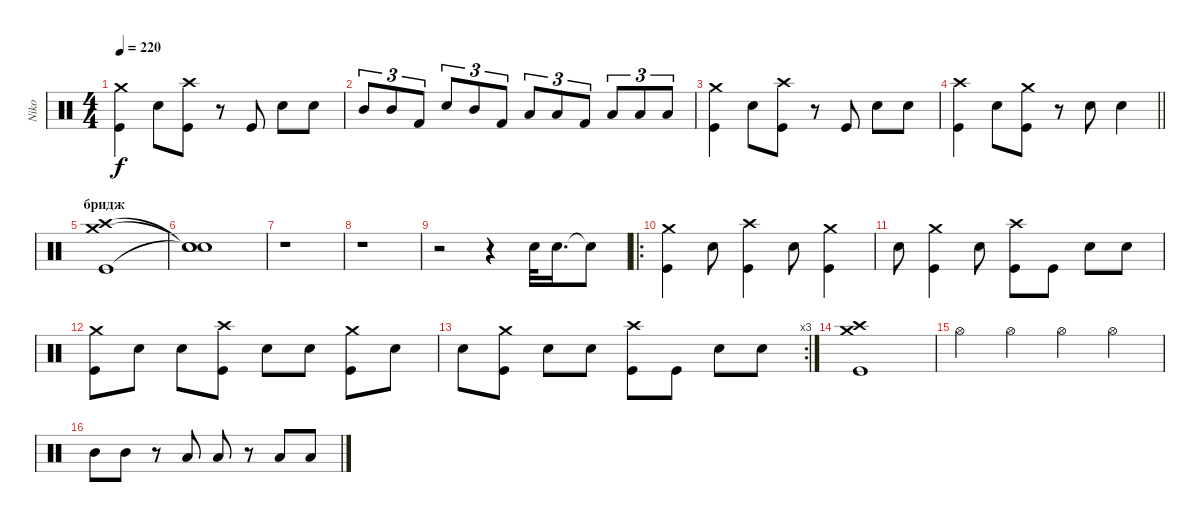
\track ("Niko" "Niko") {instrument percussion}
\staff {score}
\articulation defaults
\ts (4 4)
\tempo 220
\clef neutral
\ks c
("Crash medium (hit)" "Kick (hit)").4{dy f} "Snare (hit) 2".8 ("Crash high (hit)" "Kick (hit)").8 r.8 "Kick (hit)".8 "Snare (hit) 2".8 "Snare (hit) 2".8 |
"Mid Tom (hit)".8{tu (3 2)} "Mid Tom (hit)".8{tu (3 2)} "Kick (hit) 2".8{tu (3 2)} "Snare (hit) 2".8{tu (3 2)} "Mid Tom (hit)".8{tu (3 2)} "Kick (hit) 2".8{tu (3 2)} "Low Tom (hit)".8{tu (3 2)} "Low Tom (hit)".8{tu (3 2)} "Kick (hit) 2".8{tu (3 2)} "Low Tom (hit)".8{tu (3 2)} "Low Floor Tom (hit)".8{tu (3 2)} "Low Floor Tom (hit)".8{tu (3 2)} |
("Crash medium (hit)" "Kick (hit)").4 "Snare (hit) 2".8 ("Crash high (hit)" "Kick (hit)").8 r.8 "Kick (hit)".8 "Snare (hit) 2".8 "Snare (hit) 2".8 |
\barLineRight lightlight
("Crash high (hit)" "Kick (hit)").4 "Snare (hit) 2".8 ("Crash medium (hit)" "Kick (hit)").8 r.8 "Snare (hit) 2".8 "Snare (hit) 2".4 |
\section ("" "бридж")
("Crash medium (hit)" "Crash high (hit)" "Kick (hit)").1 |
("Snare (hit)"{t} "Snare (hit)"{t} "Snare (hit)"{t}).1 |
r.1 |
r.1 |
r.2 r.4 "Snare (hit) 2".32 "Snare (hit) 2".16{d} "Snare (hit)"{t}.8 |
\ro
("Crash medium (hit)" "Kick (hit)").4 "Snare (hit) 2".8 ("Crash high (hit)" "Kick (hit)").4 "Snare (hit) 2".8 ("Crash medium (hit)" "Kick (hit)").4 |
"Snare (hit) 2".8 ("Crash medium (hit)" "Kick (hit)").4 "Snare (hit) 2".8 ("Crash high (hit)" "Kick (hit)").8 "Kick (hit)".8 "Snare (hit) 2".8 "Snare (hit) 2".8 |
("Crash medium (hit)" "Kick (hit)").8 "Snare (hit) 2".8 "Snare (hit) 2".8 ("Crash high (hit)" "Kick (hit)").8 "Snare (hit) 2".8 "Snare (hit) 2".8 ("Crash medium (hit)" "Kick (hit)").8 "Snare (hit) 2".8 |
\rc 3 "Snare (hit) 2".8
("Crash medium (hit)" "Kick (hit)").8 "Snare (hit) 2".8 "Snare (hit) 2".8 ("Crash high (hit)" "Kick (hit)").8 "Kick (hit)".8 "Snare (hit) 2".8 "Snare (hit) 2".8 |
("Crash medium (hit)" "Crash high (hit)" "Kick (hit)").1 |
"Hi-Hat (open)".4 "Hi-Hat (open)".4 "Hi-Hat (open)".4 "Hi-Hat (open)".4 |
"Mid Tom (hit)".8 "Mid Tom (hit)".8 r.8 "Low Tom (hit)".8 "Low Tom (hit)".8 r.8 "Low Floor Tom (hit)".8 "Low Floor Tom (hit)".8
